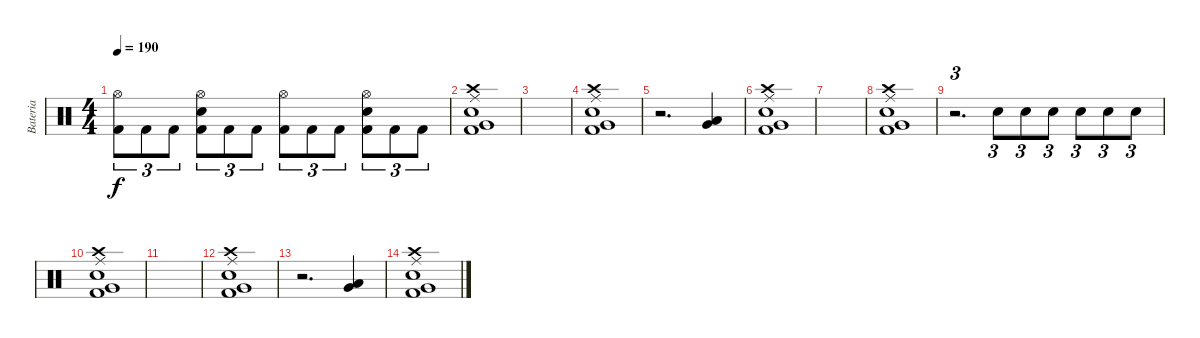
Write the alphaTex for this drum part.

\track ("Bateria" "Bateria") {instrument percussion}
\staff {score}
\articulation defaults
\ts (4 4)
\tempo 190
\clef neutral
\ks c
("Hi-Hat (open)" "Kick (hit) 2").8{tu (3 2) dy f} "Kick (hit) 2".8{tu (3 2)} "Kick (hit) 2".8{tu (3 2)} ("Hi-Hat (open)" "Electric Snare (hit)" "Kick (hit) 2").8{tu (3 2)} "Kick (hit) 2".8{tu (3 2)} "Kick (hit) 2".8{tu (3 2)} ("Hi-Hat (open)" "Kick (hit) 2").8{tu (3 2)} "Kick (hit) 2".8{tu (3 2)} "Kick (hit) 2".8{tu (3 2)} ("Hi-Hat (open)" "Electric Snare (hit)" "Kick (hit) 2").8{tu (3 2)} "Kick (hit) 2".8{tu (3 2)} "Kick (hit) 2".8{tu (3 2)} |
("Ride (middle)" "Crash high (hit)" "Electric Snare (hit)" "Kick (hit) 2" "Very Low Tom (hit)").1 |
|
("Ride (middle)" "Crash high (hit)" "Electric Snare (hit)" "Kick (hit) 2" "Very Low Tom (hit)").1 |
r.2{d} ("Very Low Tom (hit)" "Low Tom (hit)").4 |
("Ride (middle)" "Crash high (hit)" "Electric Snare (hit)" "Kick (hit) 2" "Very Low Tom (hit)").1 |
|
("Ride (middle)" "Crash high (hit)" "Electric Snare (hit)" "Kick (hit) 2" "Very Low Tom (hit)").1 |
r.2{d tu (3 2)} "Electric Snare (hit)".8{tu (3 2)} "Electric Snare (hit)".8{tu (3 2)} "Electric Snare (hit)".8{tu (3 2)} "Electric Snare (hit)".8{tu (3 2)} "Electric Snare (hit)".8{tu (3 2)} "Electric Snare (hit)".8{tu (3 2)} |
("Ride (middle)" "Crash high (hit)" "Electric Snare (hit)" "Kick (hit) 2" "Very Low Tom (hit)").1 |
|
("Ride (middle)" "Crash high (hit)" "Electric Snare (hit)" "Kick (hit) 2" "Very Low Tom (hit)").1 |
r.2{d} ("Very Low Tom (hit)" "Low Tom (hit)").4 |
("Ride (middle)" "Crash high (hit)" "Electric Snare (hit)" "Kick (hit) 2" "Very Low Tom (hit)").1
